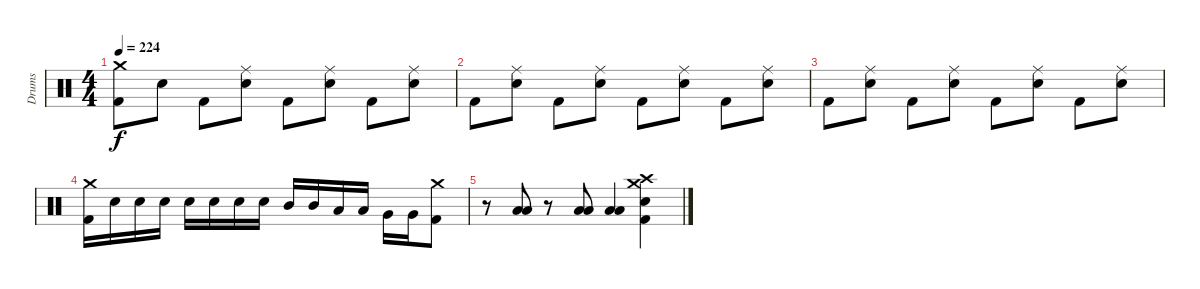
\track ("Drums" "Drums") {instrument percussion}
\staff {score}
\articulation defaults
\ts (4 4)
\tempo 224
\clef neutral
\ks c
("Crash medium (hit)" "Kick (hit) 2").8{dy f} "Electric Snare (hit)".8 "Kick (hit) 2".8 ("Electric Snare (hit)" "Ride (middle)").8 "Kick (hit) 2".8 ("Ride (middle)" "Electric Snare (hit)").8 "Kick (hit) 2".8 ("Ride (middle)" "Electric Snare (hit)").8 |
"Kick (hit) 2".8 ("Ride (middle)" "Electric Snare (hit)").8 "Kick (hit) 2".8 ("Ride (middle)" "Electric Snare (hit)").8 "Kick (hit) 2".8 ("Ride (middle)" "Electric Snare (hit)").8 "Kick (hit) 2".8 ("Ride (middle)" "Electric Snare (hit)").8 |
"Kick (hit) 2".8 ("Ride (middle)" "Electric Snare (hit)").8 "Kick (hit) 2".8 ("Ride (middle)" "Electric Snare (hit)").8 "Kick (hit) 2".8 ("Ride (middle)" "Electric Snare (hit)").8 "Kick (hit) 2".8 ("Ride (middle)" "Electric Snare (hit)").8 |
("Crash medium (hit)" "Kick (hit) 2").16 "Electric Snare (hit)".16 "Electric Snare (hit)".16 "Electric Snare (hit)".16 "Electric Snare (hit)".16 "Electric Snare (hit)".16 "Electric Snare (hit)".16 "Electric Snare (hit)".16 "Mid Tom (hit)".16 "Mid Tom (hit)".16 "Low Tom (hit)".16 "Low Tom (hit)".16 "Very Low Tom (hit)".16 "Very Low Tom (hit)".16 ("Kick (hit) 2" "Crash medium (hit)").8 |
r.8 ("Low Tom (hit)" "Low Floor Tom (hit)").8 r.8 ("Low Tom (hit)" "Low Floor Tom (hit)").8 ("Low Tom (hit)" "Low Floor Tom (hit)").4 ("Crash medium (hit)" "Crash high (hit)" "Kick (hit) 2" "Electric Snare (hit)").4
